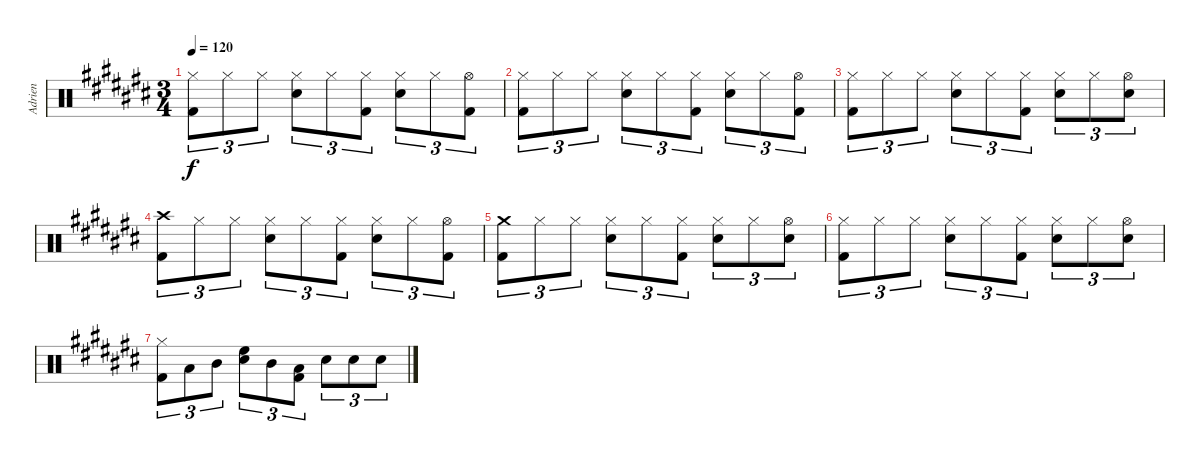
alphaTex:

\track ("Adrien" "Adrien") {instrument percussion}
\staff {score}
\articulation defaults
\ts (3 4)
\tempo 120
\clef neutral
\ks c#
("Hi-Hat (closed)" "Kick (hit) 2").8{tu (3 2) dy f} "Hi-Hat (closed)".8{tu (3 2)} "Hi-Hat (closed)".8{tu (3 2)} ("Hi-Hat (closed)" "Electric Snare (hit)").8{tu (3 2)} "Hi-Hat (closed)".8{tu (3 2)} ("Hi-Hat (closed)" "Kick (hit) 2").8{tu (3 2)} ("Hi-Hat (closed)" "Electric Snare (hit)").8{tu (3 2)} "Hi-Hat (closed)".8{tu (3 2)} ("Hi-Hat (open)" "Kick (hit) 2").8{tu (3 2)} |
("Hi-Hat (closed)" "Kick (hit) 2").8{tu (3 2)} "Hi-Hat (closed)".8{tu (3 2)} "Hi-Hat (closed)".8{tu (3 2)} ("Hi-Hat (closed)" "Electric Snare (hit)").8{tu (3 2)} "Hi-Hat (closed)".8{tu (3 2)} ("Hi-Hat (closed)" "Kick (hit) 2").8{tu (3 2)} ("Hi-Hat (closed)" "Electric Snare (hit)").8{tu (3 2)} "Hi-Hat (closed)".8{tu (3 2)} ("Hi-Hat (open)" "Kick (hit) 2").8{tu (3 2)} |
("Hi-Hat (closed)" "Kick (hit) 2").8{tu (3 2)} "Hi-Hat (closed)".8{tu (3 2)} "Hi-Hat (closed)".8{tu (3 2)} ("Hi-Hat (closed)" "Electric Snare (hit)").8{tu (3 2)} "Hi-Hat (closed)".8{tu (3 2)} ("Hi-Hat (closed)" "Kick (hit) 2").8{tu (3 2)} ("Hi-Hat (closed)" "Electric Snare (hit)").8{tu (3 2)} "Hi-Hat (closed)".8{tu (3 2)} ("Hi-Hat (open)" "Electric Snare (hit)").8{tu (3 2)} |
("Crash high (hit)" "Kick (hit) 2").8{tu (3 2)} "Hi-Hat (closed)".8{tu (3 2)} "Hi-Hat (closed)".8{tu (3 2)} ("Hi-Hat (closed)" "Electric Snare (hit)").8{tu (3 2)} "Hi-Hat (closed)".8{tu (3 2)} ("Hi-Hat (closed)" "Kick (hit) 2").8{tu (3 2)} ("Hi-Hat (closed)" "Electric Snare (hit)").8{tu (3 2)} "Hi-Hat (closed)".8{tu (3 2)} ("Hi-Hat (open)" "Kick (hit) 2").8{tu (3 2)} |
("Crash medium (hit)" "Kick (hit) 2").8{tu (3 2)} "Hi-Hat (closed)".8{tu (3 2)} "Hi-Hat (closed)".8{tu (3 2)} ("Hi-Hat (closed)" "Electric Snare (hit)").8{tu (3 2)} "Hi-Hat (closed)".8{tu (3 2)} ("Hi-Hat (closed)" "Kick (hit) 2").8{tu (3 2)} ("Hi-Hat (closed)" "Electric Snare (hit)").8{tu (3 2)} "Hi-Hat (closed)".8{tu (3 2)} ("Hi-Hat (open)" "Electric Snare (hit)").8{tu (3 2)} |
("Hi-Hat (closed)" "Kick (hit) 2").8{tu (3 2)} "Hi-Hat (closed)".8{tu (3 2)} "Hi-Hat (closed)".8{tu (3 2)} ("Hi-Hat (closed)" "Electric Snare (hit)").8{tu (3 2)} "Hi-Hat (closed)".8{tu (3 2)} ("Hi-Hat (closed)" "Kick (hit) 2").8{tu (3 2)} ("Hi-Hat (closed)" "Electric Snare (hit)").8{tu (3 2)} "Hi-Hat (closed)".8{tu (3 2)} ("Hi-Hat (open)" "Electric Snare (hit)").8{tu (3 2)} |
("Hi-Hat (closed)" "Kick (hit) 2").8{tu (3 2)} "Low Tom (hit)".8{tu (3 2)} "Mid Tom (hit)".8{tu (3 2)} ("High Floor Tom (hit)" "Electric Snare (hit)").8{tu (3 2)} "Mid Tom (hit)".8{tu (3 2)} ("Low Tom (hit)" "Kick (hit) 2").8{tu (3 2)} "Electric Snare (hit)".8{tu (3 2)} "Electric Snare (hit)".8{tu (3 2)} "Electric Snare (hit)".8{tu (3 2)}
